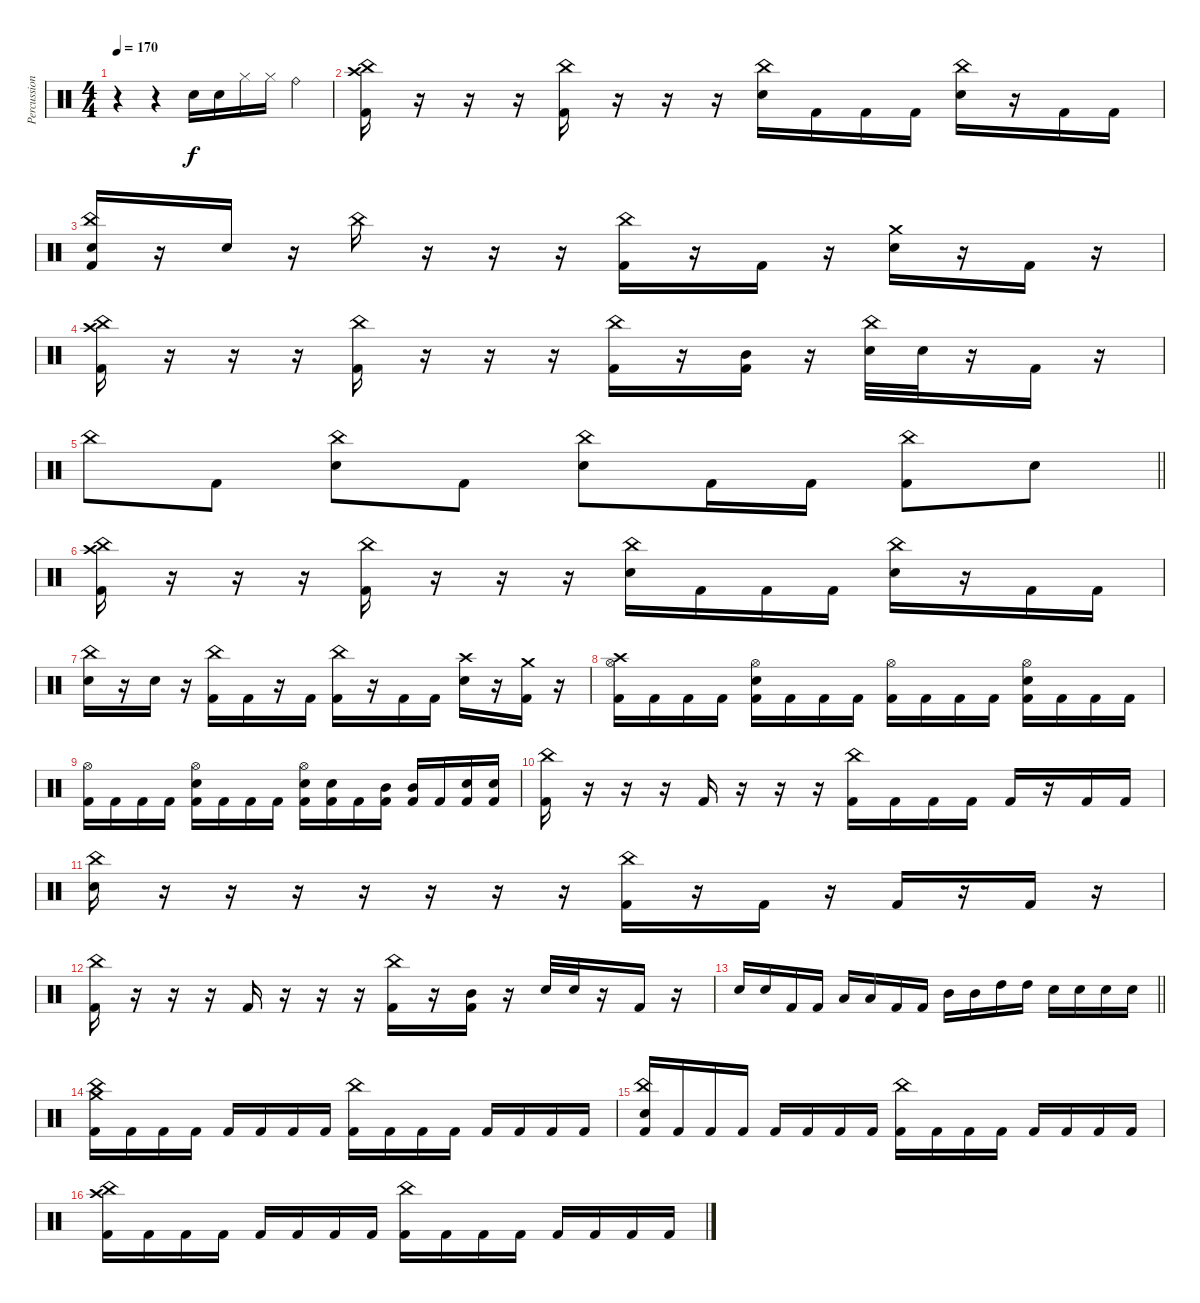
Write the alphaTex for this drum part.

\track ("Percussions" "Percussion") {instrument percussion}
\staff {score}
\articulation defaults
\ts (4 4)
\tempo 170
\clef neutral
\ks c
r.4{dy f} r.4 "Electric Snare (hit)".16 "Electric Snare (hit)".16 "Hi-Hat (closed)".16 "Hi-Hat (closed)".16 "Ride (bell)".4 |
("China (hit)" "Crash high (hit)" "Kick (hit) 2").16 r.16 r.16 r.16 ("China (hit)" "Kick (hit) 2").16 r.16 r.16 r.16 ("China (hit)" "Electric Snare (hit)").16 "Kick (hit) 2".16 "Kick (hit) 2".16 "Kick (hit) 2".16 ("China (hit)" "Electric Snare (hit)").16 r.16 "Kick (hit) 2".16 "Kick (hit) 2".16 |
("China (hit)" "Kick (hit) 2" "Electric Snare (hit)").16 r.16 "Electric Snare (hit)".16 r.16 "China (hit)".16 r.16 r.16 r.16 ("China (hit)" "Kick (hit) 2").16 r.16 "Kick (hit) 2".16 r.16 ("Crash medium (hit)" "Electric Snare (hit)").16 r.16 "Kick (hit) 2".16 r.16 |
("China (hit)" "Crash high (hit)" "Kick (hit) 2").16 r.16 r.16 r.16 ("China (hit)" "Kick (hit) 2").16 r.16 r.16 r.16 ("China (hit)" "Kick (hit) 2").16 r.16 ("Mid Tom (hit)" "Kick (hit) 2").16 r.16 ("China (hit)" "Electric Snare (hit)").32 "Electric Snare (hit)".32 r.16 "Kick (hit) 2".16 r.16 |
\barLineRight lightlight "China (hit)".8 "Kick (hit) 2".8
("China (hit)" "Electric Snare (hit)").8 "Kick (hit) 2".8 ("China (hit)" "Electric Snare (hit)").8 "Kick (hit) 2".16 "Kick (hit) 2".16 ("China (hit)" "Kick (hit) 2").8 "Electric Snare (hit)".8 |
("China (hit)" "Crash high (hit)" "Kick (hit) 2").16 r.16 r.16 r.16 ("China (hit)" "Kick (hit) 2").16 r.16 r.16 r.16 ("China (hit)" "Electric Snare (hit)").16 "Kick (hit) 2".16 "Kick (hit) 2".16 "Kick (hit) 2".16 ("China (hit)" "Electric Snare (hit)").16 r.16 "Kick (hit) 2".16 "Kick (hit) 2".16 |
("China (hit)" "Electric Snare (hit)").16 r.16 "Electric Snare (hit)".16 r.16 ("China (hit)" "Kick (hit) 2").16 "Kick (hit) 2".16 r.16 "Kick (hit) 2".16 ("China (hit)" "Kick (hit) 2").16 r.16 "Kick (hit) 2".16 "Kick (hit) 2".16 ("Crash high (hit)" "Electric Snare (hit)").16 r.16 ("Crash medium (hit)" "Kick (hit) 2").16 r.16 |
("Hi-Hat (open)" "Crash high (hit)" "Kick (hit) 2").16 "Kick (hit) 2".16 "Kick (hit) 2".16 "Kick (hit) 2".16 ("Hi-Hat (open)" "Electric Snare (hit)" "Kick (hit) 2").16 "Kick (hit) 2".16 "Kick (hit) 2".16 "Kick (hit) 2".16 ("Hi-Hat (open)" "Kick (hit) 2").16 "Kick (hit) 2".16 "Kick (hit) 2".16 "Kick (hit) 2".16 ("Hi-Hat (open)" "Electric Snare (hit)" "Kick (hit) 2").16 "Kick (hit) 2".16 "Kick (hit) 2".16 "Kick (hit) 2".16 |
("Hi-Hat (open)" "Kick (hit) 2").16 "Kick (hit) 2".16 "Kick (hit) 2".16 "Kick (hit) 2".16 ("Hi-Hat (open)" "Electric Snare (hit)" "Kick (hit) 2").16 "Kick (hit) 2".16 "Kick (hit) 2".16 "Kick (hit) 2".16 ("Hi-Hat (open)" "Electric Snare (hit)" "Kick (hit) 2").16 ("Electric Snare (hit)" "Kick (hit) 2").16 "Kick (hit) 2".16 ("Mid Tom (hit)" "Kick (hit) 2").16 ("Mid Tom (hit)" "Kick (hit) 2").16 "Kick (hit) 2".16 ("Electric Snare (hit)" "Kick (hit) 2").16 ("Electric Snare (hit)" "Kick (hit) 2").16 |
("China (hit)" "Kick (hit) 2").16 r.16 r.16 r.16 "Kick (hit) 2".16 r.16 r.16 r.16 ("China (hit)" "Kick (hit) 2").16 "Kick (hit) 2".16 "Kick (hit) 2".16 "Kick (hit) 2".16 "Kick (hit) 2".16 r.16 "Kick (hit) 2".16 "Kick (hit) 2".16 |
("China (hit)" "Electric Snare (hit)").16 r.16 r.16 r.16 r.16 r.16 r.16 r.16 ("China (hit)" "Kick (hit) 2").16 r.16 "Kick (hit) 2".16 r.16 "Kick (hit) 2".16 r.16 "Kick (hit) 2".16 r.16 |
("China (hit)" "Kick (hit) 2").16 r.16 r.16 r.16 "Kick (hit) 2".16 r.16 r.16 r.16 ("China (hit)" "Kick (hit) 2").16 r.16 ("Mid Tom (hit)" "Kick (hit) 2").16 r.16 "Electric Snare (hit)".32 "Electric Snare (hit)".32 r.16 "Kick (hit) 2".16 r.16 |
\barLineRight lightlight "Electric Snare (hit)".16 "Electric Snare (hit)".16 "Kick (hit) 2".16 "Kick (hit) 2".16 "Low Floor Tom (hit)".16 "Low Floor Tom (hit)".16 "Kick (hit) 2".16 "Kick (hit) 2".16 "Mid Tom (hit)".16 "Mid Tom (hit)".16 "High Tom (hit)".16 "High Tom (hit)".16 "Electric Snare (hit)".16 "Electric Snare (hit)".16 "Electric Snare (hit)".16 "Electric Snare (hit)".16
|
("China (hit)" "Crash medium (hit)" "Kick (hit) 2").16 "Kick (hit) 2".16 "Kick (hit) 2".16 "Kick (hit) 2".16 "Kick (hit) 2".16 "Kick (hit) 2".16 "Kick (hit) 2".16 "Kick (hit) 2".16 ("China (hit)" "Kick (hit) 2").16 "Kick (hit) 2".16 "Kick (hit) 2".16 "Kick (hit) 2".16 "Kick (hit) 2".16 "Kick (hit) 2".16 "Kick (hit) 2".16 "Kick (hit) 2".16 |
("China (hit)" "Electric Snare (hit)" "Kick (hit) 2").16 "Kick (hit) 2".16 "Kick (hit) 2".16 "Kick (hit) 2".16 "Kick (hit) 2".16 "Kick (hit) 2".16 "Kick (hit) 2".16 "Kick (hit) 2".16 ("China (hit)" "Kick (hit) 2").16 "Kick (hit) 2".16 "Kick (hit) 2".16 "Kick (hit) 2".16 "Kick (hit) 2".16 "Kick (hit) 2".16 "Kick (hit) 2".16 "Kick (hit) 2".16 |
("China (hit)" "Crash high (hit)" "Kick (hit) 2").16 "Kick (hit) 2".16 "Kick (hit) 2".16 "Kick (hit) 2".16 "Kick (hit) 2".16 "Kick (hit) 2".16 "Kick (hit) 2".16 "Kick (hit) 2".16 ("China (hit)" "Kick (hit) 2").16 "Kick (hit) 2".16 "Kick (hit) 2".16 "Kick (hit) 2".16 "Kick (hit) 2".16 "Kick (hit) 2".16 "Kick (hit) 2".16 "Kick (hit) 2".16
